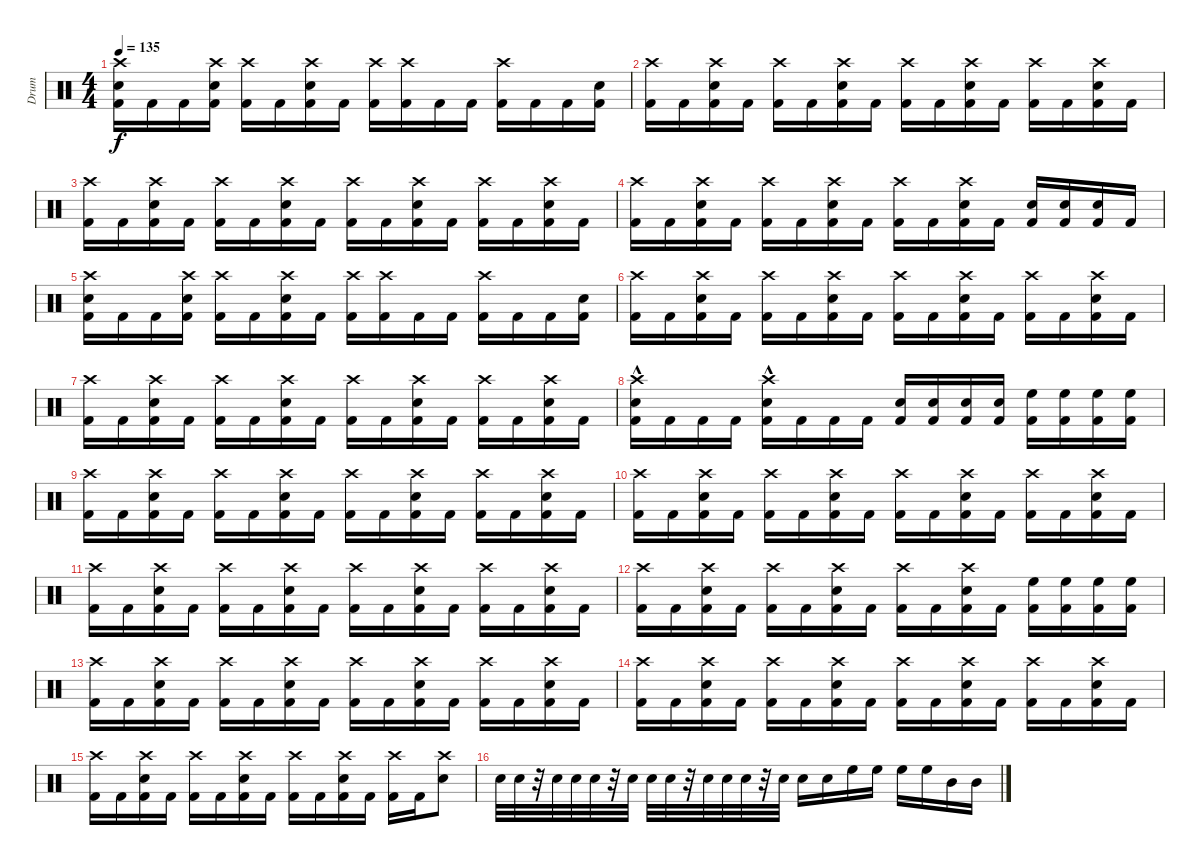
\track ("Drum" "Drum") {instrument percussion}
\staff {score}
\articulation defaults
\ts (4 4)
\tempo 135
\clef neutral
\ks c
("Kick (hit) 2" "Snare (hit) 2" "Crash high (hit)").16{dy f} "Kick (hit) 2".16 "Kick (hit) 2".16 ("Kick (hit) 2" "Crash high (hit)" "Snare (hit) 2").16 ("Kick (hit) 2" "Crash high (hit)").16 "Kick (hit) 2".16 ("Kick (hit) 2" "Crash high (hit)" "Snare (hit) 2").16 "Kick (hit) 2".16 ("Kick (hit) 2" "Crash high (hit)").16 ("Kick (hit) 2" "Crash high (hit)").16 "Kick (hit) 2".16 "Kick (hit) 2".16 ("Kick (hit) 2" "Crash high (hit)").16 "Kick (hit) 2".16 "Kick (hit) 2".16 ("Kick (hit) 2" "Snare (hit) 2").16 |
("Kick (hit) 2" "Crash high (hit)").16 "Kick (hit) 2".16 ("Kick (hit) 2" "Crash high (hit)" "Snare (hit) 2").16 "Kick (hit) 2".16 ("Kick (hit) 2" "Crash high (hit)").16 "Kick (hit) 2".16 ("Kick (hit) 2" "Crash high (hit)" "Snare (hit) 2").16 "Kick (hit) 2".16 ("Kick (hit) 2" "Crash high (hit)").16 "Kick (hit) 2".16 ("Kick (hit) 2" "Crash high (hit)" "Snare (hit) 2").16 "Kick (hit) 2".16 ("Kick (hit) 2" "Crash high (hit)").16 "Kick (hit) 2".16 ("Kick (hit) 2" "Crash high (hit)" "Snare (hit) 2").16 "Kick (hit) 2".16 |
("Kick (hit) 2" "Crash high (hit)").16 "Kick (hit) 2".16 ("Kick (hit) 2" "Crash high (hit)" "Snare (hit) 2").16 "Kick (hit) 2".16 ("Kick (hit) 2" "Crash high (hit)").16 "Kick (hit) 2".16 ("Kick (hit) 2" "Crash high (hit)" "Snare (hit) 2").16 "Kick (hit) 2".16 ("Kick (hit) 2" "Crash high (hit)").16 "Kick (hit) 2".16 ("Kick (hit) 2" "Crash high (hit)" "Snare (hit) 2").16 "Kick (hit) 2".16 ("Kick (hit) 2" "Crash high (hit)").16 "Kick (hit) 2".16 ("Kick (hit) 2" "Crash high (hit)" "Snare (hit) 2").16 "Kick (hit) 2".16 |
("Kick (hit) 2" "Crash high (hit)").16 "Kick (hit) 2".16 ("Kick (hit) 2" "Crash high (hit)" "Snare (hit) 2").16 "Kick (hit) 2".16 ("Kick (hit) 2" "Crash high (hit)").16 "Kick (hit) 2".16 ("Kick (hit) 2" "Crash high (hit)" "Snare (hit) 2").16 "Kick (hit) 2".16 ("Kick (hit) 2" "Crash high (hit)").16 "Kick (hit) 2".16 ("Kick (hit) 2" "Crash high (hit)" "Snare (hit) 2").16 "Kick (hit) 2".16 ("Kick (hit) 2" "Snare (hit) 2").16 ("Kick (hit) 2" "Snare (hit) 2").16 ("Kick (hit) 2" "Snare (hit) 2").16 "Kick (hit) 2".16 |
("Kick (hit) 2" "Snare (hit) 2" "Crash high (hit)").16 "Kick (hit) 2".16 "Kick (hit) 2".16 ("Kick (hit) 2" "Crash high (hit)" "Snare (hit) 2").16 ("Kick (hit) 2" "Crash high (hit)").16 "Kick (hit) 2".16 ("Kick (hit) 2" "Crash high (hit)" "Snare (hit) 2").16 "Kick (hit) 2".16 ("Kick (hit) 2" "Crash high (hit)").16 ("Kick (hit) 2" "Crash high (hit)").16 "Kick (hit) 2".16 "Kick (hit) 2".16 ("Kick (hit) 2" "Crash high (hit)").16 "Kick (hit) 2".16 "Kick (hit) 2".16 ("Kick (hit) 2" "Snare (hit) 2").16 |
("Kick (hit) 2" "Crash high (hit)").16 "Kick (hit) 2".16 ("Kick (hit) 2" "Crash high (hit)" "Snare (hit) 2").16 "Kick (hit) 2".16 ("Kick (hit) 2" "Crash high (hit)").16 "Kick (hit) 2".16 ("Kick (hit) 2" "Crash high (hit)" "Snare (hit) 2").16 "Kick (hit) 2".16 ("Kick (hit) 2" "Crash high (hit)").16 "Kick (hit) 2".16 ("Kick (hit) 2" "Crash high (hit)" "Snare (hit) 2").16 "Kick (hit) 2".16 ("Kick (hit) 2" "Crash high (hit)").16 "Kick (hit) 2".16 ("Kick (hit) 2" "Crash high (hit)" "Snare (hit) 2").16 "Kick (hit) 2".16 |
("Kick (hit) 2" "Crash high (hit)").16 "Kick (hit) 2".16 ("Kick (hit) 2" "Crash high (hit)" "Snare (hit) 2").16 "Kick (hit) 2".16 ("Kick (hit) 2" "Crash high (hit)").16 "Kick (hit) 2".16 ("Kick (hit) 2" "Crash high (hit)" "Snare (hit) 2").16 "Kick (hit) 2".16 ("Kick (hit) 2" "Crash high (hit)").16 "Kick (hit) 2".16 ("Kick (hit) 2" "Crash high (hit)" "Snare (hit) 2").16 "Kick (hit) 2".16 ("Kick (hit) 2" "Crash high (hit)").16 "Kick (hit) 2".16 ("Kick (hit) 2" "Crash high (hit)" "Snare (hit) 2").16 "Kick (hit) 2".16 |
("Kick (hit) 2" "Crash high (hit)"{hac} "Snare (hit) 2"{hac}).16 "Kick (hit) 2".16 "Kick (hit) 2".16 "Kick (hit) 2".16 ("Kick (hit) 2" "Crash high (hit)"{hac} "Snare (hit) 2"{hac}).16 "Kick (hit) 2".16 "Kick (hit) 2".16 "Kick (hit) 2".16 ("Kick (hit) 2" "Snare (hit) 2").16 ("Kick (hit) 2" "Snare (hit) 2").16 ("Kick (hit) 2" "Snare (hit) 2").16 ("Kick (hit) 2" "Snare (hit) 2").16 ("Kick (hit) 2" "High Floor Tom (hit)").16 ("Kick (hit) 2" "High Floor Tom (hit)").16 ("Kick (hit) 2" "High Floor Tom (hit)").16 ("Kick (hit) 2" "High Floor Tom (hit)").16 |
("Kick (hit) 2" "Crash high (hit)").16 "Kick (hit) 2".16 ("Kick (hit) 2" "Crash high (hit)" "Snare (hit) 2").16 "Kick (hit) 2".16 ("Kick (hit) 2" "Crash high (hit)").16 "Kick (hit) 2".16 ("Kick (hit) 2" "Crash high (hit)" "Snare (hit) 2").16 "Kick (hit) 2".16 ("Kick (hit) 2" "Crash high (hit)").16 "Kick (hit) 2".16 ("Kick (hit) 2" "Crash high (hit)" "Snare (hit) 2").16 "Kick (hit) 2".16 ("Kick (hit) 2" "Crash high (hit)").16 "Kick (hit) 2".16 ("Kick (hit) 2" "Crash high (hit)" "Snare (hit) 2").16 "Kick (hit) 2".16 |
("Kick (hit) 2" "Crash high (hit)").16 "Kick (hit) 2".16 ("Kick (hit) 2" "Crash high (hit)" "Snare (hit) 2").16 "Kick (hit) 2".16 ("Kick (hit) 2" "Crash high (hit)").16 "Kick (hit) 2".16 ("Kick (hit) 2" "Crash high (hit)" "Snare (hit) 2").16 "Kick (hit) 2".16 ("Kick (hit) 2" "Crash high (hit)").16 "Kick (hit) 2".16 ("Kick (hit) 2" "Crash high (hit)" "Snare (hit) 2").16 "Kick (hit) 2".16 ("Kick (hit) 2" "Crash high (hit)").16 "Kick (hit) 2".16 ("Kick (hit) 2" "Crash high (hit)" "Snare (hit) 2").16 "Kick (hit) 2".16 |
("Kick (hit) 2" "Crash high (hit)").16 "Kick (hit) 2".16 ("Kick (hit) 2" "Crash high (hit)" "Snare (hit) 2").16 "Kick (hit) 2".16 ("Kick (hit) 2" "Crash high (hit)").16 "Kick (hit) 2".16 ("Kick (hit) 2" "Crash high (hit)" "Snare (hit) 2").16 "Kick (hit) 2".16 ("Kick (hit) 2" "Crash high (hit)").16 "Kick (hit) 2".16 ("Kick (hit) 2" "Crash high (hit)" "Snare (hit) 2").16 "Kick (hit) 2".16 ("Kick (hit) 2" "Crash high (hit)").16 "Kick (hit) 2".16 ("Kick (hit) 2" "Crash high (hit)" "Snare (hit) 2").16 "Kick (hit) 2".16 |
("Kick (hit) 2" "Crash high (hit)").16 "Kick (hit) 2".16 ("Kick (hit) 2" "Crash high (hit)" "Snare (hit) 2").16 "Kick (hit) 2".16 ("Kick (hit) 2" "Crash high (hit)").16 "Kick (hit) 2".16 ("Kick (hit) 2" "Crash high (hit)" "Snare (hit) 2").16 "Kick (hit) 2".16 ("Kick (hit) 2" "Crash high (hit)").16 "Kick (hit) 2".16 ("Kick (hit) 2" "Crash high (hit)" "Snare (hit) 2").16 "Kick (hit) 2".16 ("Kick (hit) 2" "High Floor Tom (hit)").16 ("Kick (hit) 2" "High Floor Tom (hit)").16 ("Kick (hit) 2" "High Floor Tom (hit)").16 ("Kick (hit) 2" "High Floor Tom (hit)").16 |
("Kick (hit) 2" "Crash high (hit)").16 "Kick (hit) 2".16 ("Kick (hit) 2" "Crash high (hit)" "Snare (hit) 2").16 "Kick (hit) 2".16 ("Kick (hit) 2" "Crash high (hit)").16 "Kick (hit) 2".16 ("Kick (hit) 2" "Crash high (hit)" "Snare (hit) 2").16 "Kick (hit) 2".16 ("Kick (hit) 2" "Crash high (hit)").16 "Kick (hit) 2".16 ("Kick (hit) 2" "Crash high (hit)" "Snare (hit) 2").16 "Kick (hit) 2".16 ("Kick (hit) 2" "Crash high (hit)").16 "Kick (hit) 2".16 ("Kick (hit) 2" "Crash high (hit)" "Snare (hit) 2").16 "Kick (hit) 2".16 |
("Kick (hit) 2" "Crash high (hit)").16 "Kick (hit) 2".16 ("Kick (hit) 2" "Crash high (hit)" "Snare (hit) 2").16 "Kick (hit) 2".16 ("Kick (hit) 2" "Crash high (hit)").16 "Kick (hit) 2".16 ("Kick (hit) 2" "Crash high (hit)" "Snare (hit) 2").16 "Kick (hit) 2".16 ("Kick (hit) 2" "Crash high (hit)").16 "Kick (hit) 2".16 ("Kick (hit) 2" "Crash high (hit)" "Snare (hit) 2").16 "Kick (hit) 2".16 ("Kick (hit) 2" "Crash high (hit)").16 "Kick (hit) 2".16 ("Kick (hit) 2" "Crash high (hit)" "Snare (hit) 2").16 "Kick (hit) 2".16 |
("Kick (hit) 2" "Crash high (hit)").16 "Kick (hit) 2".16 ("Kick (hit) 2" "Crash high (hit)" "Snare (hit) 2").16 "Kick (hit) 2".16 ("Kick (hit) 2" "Crash high (hit)").16 "Kick (hit) 2".16 ("Kick (hit) 2" "Crash high (hit)" "Snare (hit) 2").16 "Kick (hit) 2".16 ("Kick (hit) 2" "Crash high (hit)").16 "Kick (hit) 2".16 ("Kick (hit) 2" "Crash high (hit)" "Snare (hit) 2").16 "Kick (hit) 2".16 ("Kick (hit) 2" "Crash high (hit)").16 "Kick (hit) 2".16 ("Crash high (hit)" "Snare (hit) 2").8 |
"Snare (hit) 2".32 "Snare (hit) 2".32 r.32 "Snare (hit) 2".32 "Snare (hit) 2".32 "Snare (hit) 2".32 r.32 "Snare (hit) 2".32 "Snare (hit) 2".32 "Snare (hit) 2".32 r.32 "Snare (hit) 2".32 "Snare (hit) 2".32 "Snare (hit) 2".32 r.32 "Snare (hit) 2".32 "Snare (hit) 2".16 "Snare (hit) 2".16 "High Floor Tom (hit)".16 "High Floor Tom (hit)".16 "High Floor Tom (hit)".16 "High Floor Tom (hit)".16 "Mid Tom (hit)".16 "Mid Tom (hit)".16
